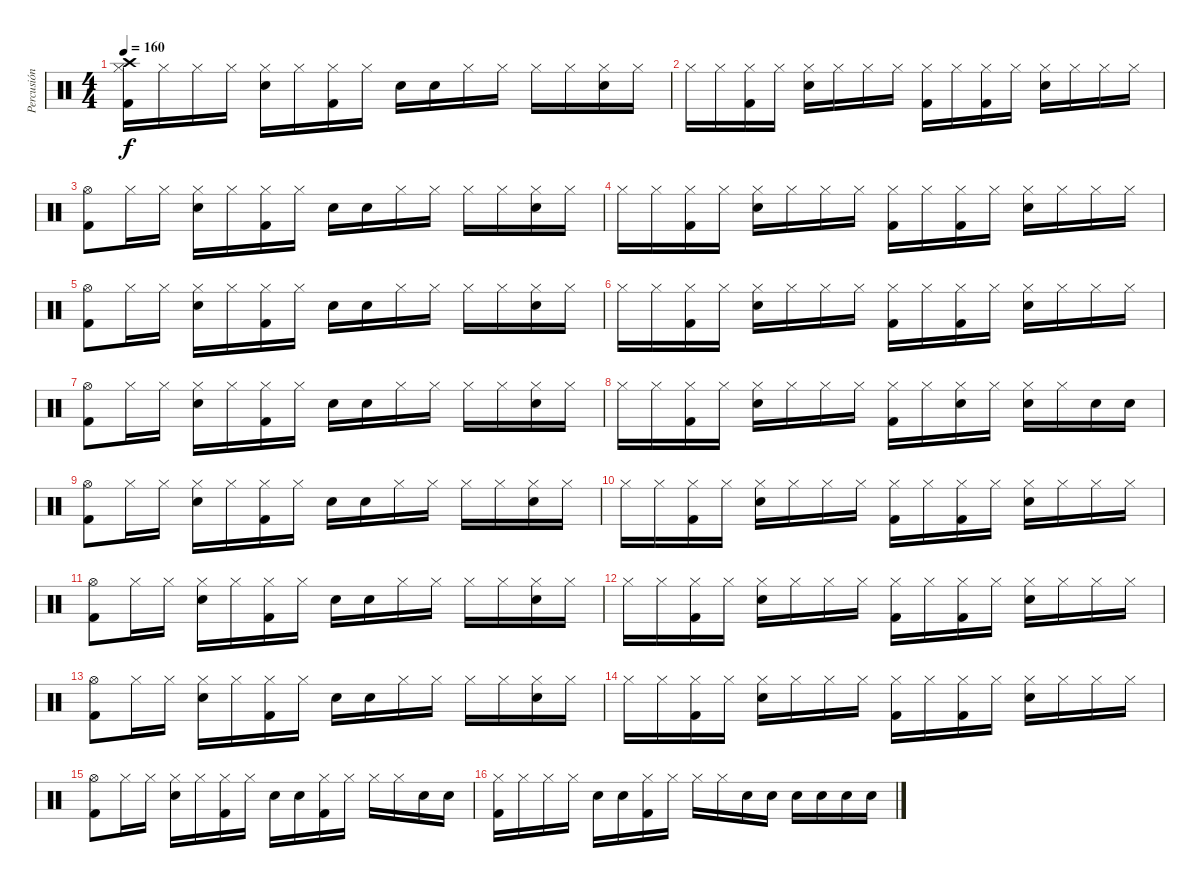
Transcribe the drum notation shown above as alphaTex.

\track ("Percusión" "Percusión") {instrument percussion}
\staff {score}
\articulation defaults
\ts (4 4)
\tempo 160
\clef neutral
\ks c
("Crash high (hit)" "Hi-Hat (closed)" "Kick (hit) 2").16{dy f} "Hi-Hat (closed)".16 "Hi-Hat (closed)".16 "Hi-Hat (closed)".16 ("Hi-Hat (closed)" "Snare (hit) 2").16 "Hi-Hat (closed)".16 ("Hi-Hat (closed)" "Kick (hit) 2").16 "Hi-Hat (closed)".16 "Snare (hit) 2".16 "Snare (hit) 2".16 "Hi-Hat (closed)".16 "Hi-Hat (closed)".16 "Hi-Hat (closed)".16 "Hi-Hat (closed)".16 ("Hi-Hat (closed)" "Snare (hit) 2").16 "Hi-Hat (closed)".16 |
"Hi-Hat (closed)".16 "Hi-Hat (closed)".16 ("Hi-Hat (closed)" "Kick (hit) 2").16 "Hi-Hat (closed)".16 ("Hi-Hat (closed)" "Snare (hit) 2").16 "Hi-Hat (closed)".16 "Hi-Hat (closed)".16 "Hi-Hat (closed)".16 ("Hi-Hat (closed)" "Kick (hit) 2").16 "Hi-Hat (closed)".16 ("Hi-Hat (closed)" "Kick (hit) 2").16 "Hi-Hat (closed)".16 ("Hi-Hat (closed)" "Snare (hit) 2").16 "Hi-Hat (closed)".16 "Hi-Hat (closed)".16 "Hi-Hat (closed)".16 |
("Hi-Hat (open)" "Kick (hit) 2").8 "Hi-Hat (closed)".16 "Hi-Hat (closed)".16 ("Hi-Hat (closed)" "Snare (hit) 2").16 "Hi-Hat (closed)".16 ("Hi-Hat (closed)" "Kick (hit) 2").16 "Hi-Hat (closed)".16 "Snare (hit) 2".16 "Snare (hit) 2".16 "Hi-Hat (closed)".16 "Hi-Hat (closed)".16 "Hi-Hat (closed)".16 "Hi-Hat (closed)".16 ("Hi-Hat (closed)" "Snare (hit) 2").16 "Hi-Hat (closed)".16 |
"Hi-Hat (closed)".16 "Hi-Hat (closed)".16 ("Hi-Hat (closed)" "Kick (hit) 2").16 "Hi-Hat (closed)".16 ("Hi-Hat (closed)" "Snare (hit) 2").16 "Hi-Hat (closed)".16 "Hi-Hat (closed)".16 "Hi-Hat (closed)".16 ("Hi-Hat (closed)" "Kick (hit) 2").16 "Hi-Hat (closed)".16 ("Hi-Hat (closed)" "Kick (hit) 2").16 "Hi-Hat (closed)".16 ("Hi-Hat (closed)" "Snare (hit) 2").16 "Hi-Hat (closed)".16 "Hi-Hat (closed)".16 "Hi-Hat (closed)".16 |
("Hi-Hat (open)" "Kick (hit) 2").8 "Hi-Hat (closed)".16 "Hi-Hat (closed)".16 ("Hi-Hat (closed)" "Snare (hit) 2").16 "Hi-Hat (closed)".16 ("Hi-Hat (closed)" "Kick (hit) 2").16 "Hi-Hat (closed)".16 "Snare (hit) 2".16 "Snare (hit) 2".16 "Hi-Hat (closed)".16 "Hi-Hat (closed)".16 "Hi-Hat (closed)".16 "Hi-Hat (closed)".16 ("Hi-Hat (closed)" "Snare (hit) 2").16 "Hi-Hat (closed)".16 |
"Hi-Hat (closed)".16 "Hi-Hat (closed)".16 ("Hi-Hat (closed)" "Kick (hit) 2").16 "Hi-Hat (closed)".16 ("Hi-Hat (closed)" "Snare (hit) 2").16 "Hi-Hat (closed)".16 "Hi-Hat (closed)".16 "Hi-Hat (closed)".16 ("Hi-Hat (closed)" "Kick (hit) 2").16 "Hi-Hat (closed)".16 ("Hi-Hat (closed)" "Kick (hit) 2").16 "Hi-Hat (closed)".16 ("Hi-Hat (closed)" "Snare (hit) 2").16 "Hi-Hat (closed)".16 "Hi-Hat (closed)".16 "Hi-Hat (closed)".16 |
("Hi-Hat (open)" "Kick (hit) 2").8 "Hi-Hat (closed)".16 "Hi-Hat (closed)".16 ("Hi-Hat (closed)" "Snare (hit) 2").16 "Hi-Hat (closed)".16 ("Hi-Hat (closed)" "Kick (hit) 2").16 "Hi-Hat (closed)".16 "Snare (hit) 2".16 "Snare (hit) 2".16 "Hi-Hat (closed)".16 "Hi-Hat (closed)".16 "Hi-Hat (closed)".16 "Hi-Hat (closed)".16 ("Hi-Hat (closed)" "Snare (hit) 2").16 "Hi-Hat (closed)".16 |
"Hi-Hat (closed)".16 "Hi-Hat (closed)".16 ("Hi-Hat (closed)" "Kick (hit) 2").16 "Hi-Hat (closed)".16 ("Hi-Hat (closed)" "Snare (hit) 2").16 "Hi-Hat (closed)".16 "Hi-Hat (closed)".16 "Hi-Hat (closed)".16 ("Hi-Hat (closed)" "Kick (hit) 2").16 "Hi-Hat (closed)".16 ("Hi-Hat (closed)" "Snare (hit) 2").16 "Hi-Hat (closed)".16 ("Hi-Hat (closed)" "Snare (hit) 2").16 "Hi-Hat (closed)".16 "Snare (hit) 2".16 "Snare (hit) 2".16 |
("Hi-Hat (open)" "Kick (hit) 2").8 "Hi-Hat (closed)".16 "Hi-Hat (closed)".16 ("Hi-Hat (closed)" "Snare (hit) 2").16 "Hi-Hat (closed)".16 ("Hi-Hat (closed)" "Kick (hit) 2").16 "Hi-Hat (closed)".16 "Snare (hit) 2".16 "Snare (hit) 2".16 "Hi-Hat (closed)".16 "Hi-Hat (closed)".16 "Hi-Hat (closed)".16 "Hi-Hat (closed)".16 ("Hi-Hat (closed)" "Snare (hit) 2").16 "Hi-Hat (closed)".16 |
"Hi-Hat (closed)".16 "Hi-Hat (closed)".16 ("Hi-Hat (closed)" "Kick (hit) 2").16 "Hi-Hat (closed)".16 ("Hi-Hat (closed)" "Snare (hit) 2").16 "Hi-Hat (closed)".16 "Hi-Hat (closed)".16 "Hi-Hat (closed)".16 ("Hi-Hat (closed)" "Kick (hit) 2").16 "Hi-Hat (closed)".16 ("Hi-Hat (closed)" "Kick (hit) 2").16 "Hi-Hat (closed)".16 ("Hi-Hat (closed)" "Snare (hit) 2").16 "Hi-Hat (closed)".16 "Hi-Hat (closed)".16 "Hi-Hat (closed)".16 |
("Hi-Hat (open)" "Kick (hit) 2").8 "Hi-Hat (closed)".16 "Hi-Hat (closed)".16 ("Hi-Hat (closed)" "Snare (hit) 2").16 "Hi-Hat (closed)".16 ("Hi-Hat (closed)" "Kick (hit) 2").16 "Hi-Hat (closed)".16 "Snare (hit) 2".16 "Snare (hit) 2".16 "Hi-Hat (closed)".16 "Hi-Hat (closed)".16 "Hi-Hat (closed)".16 "Hi-Hat (closed)".16 ("Hi-Hat (closed)" "Snare (hit) 2").16 "Hi-Hat (closed)".16 |
"Hi-Hat (closed)".16 "Hi-Hat (closed)".16 ("Hi-Hat (closed)" "Kick (hit) 2").16 "Hi-Hat (closed)".16 ("Hi-Hat (closed)" "Snare (hit) 2").16 "Hi-Hat (closed)".16 "Hi-Hat (closed)".16 "Hi-Hat (closed)".16 ("Hi-Hat (closed)" "Kick (hit) 2").16 "Hi-Hat (closed)".16 ("Hi-Hat (closed)" "Kick (hit) 2").16 "Hi-Hat (closed)".16 ("Hi-Hat (closed)" "Snare (hit) 2").16 "Hi-Hat (closed)".16 "Hi-Hat (closed)".16 "Hi-Hat (closed)".16 |
("Hi-Hat (open)" "Kick (hit) 2").8 "Hi-Hat (closed)".16 "Hi-Hat (closed)".16 ("Hi-Hat (closed)" "Snare (hit) 2").16 "Hi-Hat (closed)".16 ("Hi-Hat (closed)" "Kick (hit) 2").16 "Hi-Hat (closed)".16 "Snare (hit) 2".16 "Snare (hit) 2".16 "Hi-Hat (closed)".16 "Hi-Hat (closed)".16 "Hi-Hat (closed)".16 "Hi-Hat (closed)".16 ("Hi-Hat (closed)" "Snare (hit) 2").16 "Hi-Hat (closed)".16 |
"Hi-Hat (closed)".16 "Hi-Hat (closed)".16 ("Hi-Hat (closed)" "Kick (hit) 2").16 "Hi-Hat (closed)".16 ("Hi-Hat (closed)" "Snare (hit) 2").16 "Hi-Hat (closed)".16 "Hi-Hat (closed)".16 "Hi-Hat (closed)".16 ("Hi-Hat (closed)" "Kick (hit) 2").16 "Hi-Hat (closed)".16 ("Hi-Hat (closed)" "Kick (hit) 2").16 "Hi-Hat (closed)".16 ("Hi-Hat (closed)" "Snare (hit) 2").16 "Hi-Hat (closed)".16 "Hi-Hat (closed)".16 "Hi-Hat (closed)".16 |
("Hi-Hat (open)" "Kick (hit) 2").8 "Hi-Hat (closed)".16 "Hi-Hat (closed)".16 ("Hi-Hat (closed)" "Snare (hit) 2").16 "Hi-Hat (closed)".16 ("Hi-Hat (closed)" "Kick (hit) 2").16 "Hi-Hat (closed)".16 "Snare (hit) 2".16 "Snare (hit) 2".16 ("Hi-Hat (closed)" "Kick (hit) 2").16 "Hi-Hat (closed)".16 "Hi-Hat (closed)".16 "Hi-Hat (closed)".16 "Snare (hit) 2".16 "Snare (hit) 2".16 |
("Hi-Hat (closed)" "Kick (hit) 2").16 "Hi-Hat (closed)".16 "Hi-Hat (closed)".16 "Hi-Hat (closed)".16 "Snare (hit) 2".16 "Snare (hit) 2".16 ("Hi-Hat (closed)" "Kick (hit) 2").16 "Hi-Hat (closed)".16 "Hi-Hat (closed)".16 "Hi-Hat (closed)".16 "Snare (hit) 2".16 "Snare (hit) 2".16 "Snare (hit) 2".16 "Snare (hit) 2".16 "Snare (hit) 2".16 "Snare (hit) 2".16
